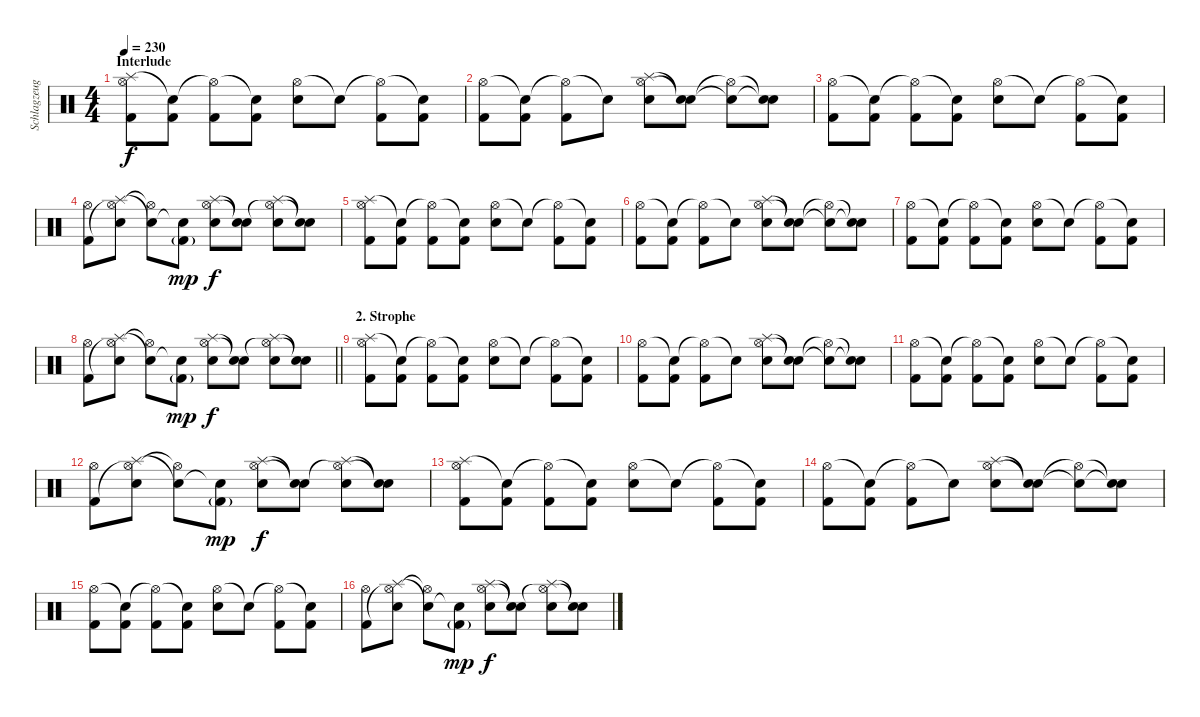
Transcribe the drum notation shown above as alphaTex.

\track ("Schlagzeug" "Schlagzeug") {instrument percussion}
\staff {score}
\articulation defaults
\ts (4 4)
\section ("" "Interlude")
\tempo 230
\clef neutral
\ks c
("Splash (hit)" "Hi-Hat (open)" "Kick (hit) 2").8{dy f} ("Snare (hit)"{t} "Kick (hit) 2").8 ("Hi-Hat (open)"{t} "Kick (hit) 2").8 ("Snare (hit)"{t} "Kick (hit) 2").8 ("Hi-Hat (open)" "Snare (hit) 2").8 "Snare (hit)"{t}.8 ("Hi-Hat (open)"{t} "Kick (hit) 2").8 ("Snare (hit)"{t} "Kick (hit) 2").8 |
("Hi-Hat (open)" "Kick (hit) 2").8 ("Snare (hit)"{t} "Kick (hit) 2").8 ("Hi-Hat (open)"{t} "Kick (hit) 2").8 "Snare (hit)"{t}.8 ("Splash (hit)" "Hi-Hat (open)" "Snare (hit) 2").8 ("Snare (hit)"{t} "Snare (hit)"{t}).8 ("Snare (hit)"{t} "Hi-Hat (open)"{t}).8 ("Snare (hit)"{t} "Snare (hit)"{t}).8 |
("Hi-Hat (open)" "Kick (hit) 2").8 ("Snare (hit)"{t} "Kick (hit) 2").8 ("Hi-Hat (open)"{t} "Kick (hit) 2").8 ("Snare (hit)"{t} "Kick (hit) 2").8 ("Hi-Hat (open)" "Snare (hit) 2").8 "Snare (hit)"{t}.8 ("Hi-Hat (open)"{t} "Kick (hit) 2").8 ("Snare (hit)"{t} "Kick (hit) 2").8 |
("Hi-Hat (open)" "Kick (hit) 2").8 ("Splash (hit)" "Hi-Hat (open)"{t} "Snare (hit) 2").8 ("Snare (hit)"{t} "Hi-Hat (open)"{t}).8 ("Snare (hit)"{t} "Kick (hit) 2"{g}).8{dy mp} ("Splash (hit)" "Hi-Hat (open)" "Snare (hit) 2").8{dy f} ("Snare (hit)"{t} "Snare (hit)"{t}).8 ("Splash (hit)" "Hi-Hat (open)"{t} "Snare (hit) 2").8 ("Snare (hit)"{t} "Snare (hit)"{t}).8 |
("Splash (hit)" "Hi-Hat (open)" "Kick (hit) 2").8 ("Snare (hit)"{t} "Kick (hit) 2").8 ("Hi-Hat (open)"{t} "Kick (hit) 2").8 ("Snare (hit)"{t} "Kick (hit) 2").8 ("Hi-Hat (open)" "Snare (hit) 2").8 "Snare (hit)"{t}.8 ("Hi-Hat (open)"{t} "Kick (hit) 2").8 ("Snare (hit)"{t} "Kick (hit) 2").8 |
("Hi-Hat (open)" "Kick (hit) 2").8 ("Snare (hit)"{t} "Kick (hit) 2").8 ("Hi-Hat (open)"{t} "Kick (hit) 2").8 "Snare (hit)"{t}.8 ("Splash (hit)" "Hi-Hat (open)" "Snare (hit) 2").8 ("Snare (hit)"{t} "Snare (hit)"{t}).8 ("Snare (hit)"{t} "Hi-Hat (open)"{t}).8 ("Snare (hit)"{t} "Snare (hit)"{t}).8 |
("Hi-Hat (open)" "Kick (hit) 2").8 ("Snare (hit)"{t} "Kick (hit) 2").8 ("Hi-Hat (open)"{t} "Kick (hit) 2").8 ("Snare (hit)"{t} "Kick (hit) 2").8 ("Hi-Hat (open)" "Snare (hit) 2").8 "Snare (hit)"{t}.8 ("Hi-Hat (open)"{t} "Kick (hit) 2").8 ("Snare (hit)"{t} "Kick (hit) 2").8 |
\barLineRight lightlight
("Hi-Hat (open)" "Kick (hit) 2").8 ("Splash (hit)" "Hi-Hat (open)"{t} "Snare (hit) 2").8 ("Snare (hit)"{t} "Hi-Hat (open)"{t}).8 ("Snare (hit)"{t} "Kick (hit) 2"{g}).8{dy mp} ("Splash (hit)" "Hi-Hat (open)" "Snare (hit) 2").8{dy f} ("Snare (hit)"{t} "Snare (hit)"{t}).8 ("Splash (hit)" "Hi-Hat (open)"{t} "Snare (hit) 2").8 ("Snare (hit)"{t} "Snare (hit)"{t}).8 |
\section ("" "2. Strophe")
("Splash (hit)" "Hi-Hat (open)" "Kick (hit) 2").8 ("Snare (hit)"{t} "Kick (hit) 2").8 ("Hi-Hat (open)"{t} "Kick (hit) 2").8 ("Snare (hit)"{t} "Kick (hit) 2").8 ("Hi-Hat (open)" "Snare (hit) 2").8 "Snare (hit)"{t}.8 ("Hi-Hat (open)"{t} "Kick (hit) 2").8 ("Snare (hit)"{t} "Kick (hit) 2").8 |
("Hi-Hat (open)" "Kick (hit) 2").8 ("Snare (hit)"{t} "Kick (hit) 2").8 ("Hi-Hat (open)"{t} "Kick (hit) 2").8 "Snare (hit)"{t}.8 ("Splash (hit)" "Hi-Hat (open)" "Snare (hit) 2").8 ("Snare (hit)"{t} "Snare (hit)"{t}).8 ("Snare (hit)"{t} "Hi-Hat (open)"{t}).8 ("Snare (hit)"{t} "Snare (hit)"{t}).8 |
("Hi-Hat (open)" "Kick (hit) 2").8 ("Snare (hit)"{t} "Kick (hit) 2").8 ("Hi-Hat (open)"{t} "Kick (hit) 2").8 ("Snare (hit)"{t} "Kick (hit) 2").8 ("Hi-Hat (open)" "Snare (hit) 2").8 "Snare (hit)"{t}.8 ("Hi-Hat (open)"{t} "Kick (hit) 2").8 ("Snare (hit)"{t} "Kick (hit) 2").8 |
("Hi-Hat (open)" "Kick (hit) 2").8 ("Splash (hit)" "Hi-Hat (open)"{t} "Snare (hit) 2").8 ("Snare (hit)"{t} "Hi-Hat (open)"{t}).8 ("Snare (hit)"{t} "Kick (hit) 2"{g}).8{dy mp} ("Splash (hit)" "Hi-Hat (open)" "Snare (hit) 2").8{dy f} ("Snare (hit)"{t} "Snare (hit)"{t}).8 ("Splash (hit)" "Hi-Hat (open)"{t} "Snare (hit) 2").8 ("Snare (hit)"{t} "Snare (hit)"{t}).8 |
("Splash (hit)" "Hi-Hat (open)" "Kick (hit) 2").8 ("Snare (hit)"{t} "Kick (hit) 2").8 ("Hi-Hat (open)"{t} "Kick (hit) 2").8 ("Snare (hit)"{t} "Kick (hit) 2").8 ("Hi-Hat (open)" "Snare (hit) 2").8 "Snare (hit)"{t}.8 ("Hi-Hat (open)"{t} "Kick (hit) 2").8 ("Snare (hit)"{t} "Kick (hit) 2").8 |
("Hi-Hat (open)" "Kick (hit) 2").8 ("Snare (hit)"{t} "Kick (hit) 2").8 ("Hi-Hat (open)"{t} "Kick (hit) 2").8 "Snare (hit)"{t}.8 ("Splash (hit)" "Hi-Hat (open)" "Snare (hit) 2").8 ("Snare (hit)"{t} "Snare (hit)"{t}).8 ("Snare (hit)"{t} "Hi-Hat (open)"{t}).8 ("Snare (hit)"{t} "Snare (hit)"{t}).8 |
("Hi-Hat (open)" "Kick (hit) 2").8 ("Snare (hit)"{t} "Kick (hit) 2").8 ("Hi-Hat (open)"{t} "Kick (hit) 2").8 ("Snare (hit)"{t} "Kick (hit) 2").8 ("Hi-Hat (open)" "Snare (hit) 2").8 "Snare (hit)"{t}.8 ("Hi-Hat (open)"{t} "Kick (hit) 2").8 ("Snare (hit)"{t} "Kick (hit) 2").8 |
("Hi-Hat (open)" "Kick (hit) 2").8 ("Splash (hit)" "Hi-Hat (open)"{t} "Snare (hit) 2").8 ("Snare (hit)"{t} "Hi-Hat (open)"{t}).8 ("Snare (hit)"{t} "Kick (hit) 2"{g}).8{dy mp} ("Splash (hit)" "Hi-Hat (open)" "Snare (hit) 2").8{dy f} ("Snare (hit)"{t} "Snare (hit)"{t}).8 ("Splash (hit)" "Hi-Hat (open)"{t} "Snare (hit) 2").8 ("Snare (hit)"{t} "Snare (hit)"{t}).8
